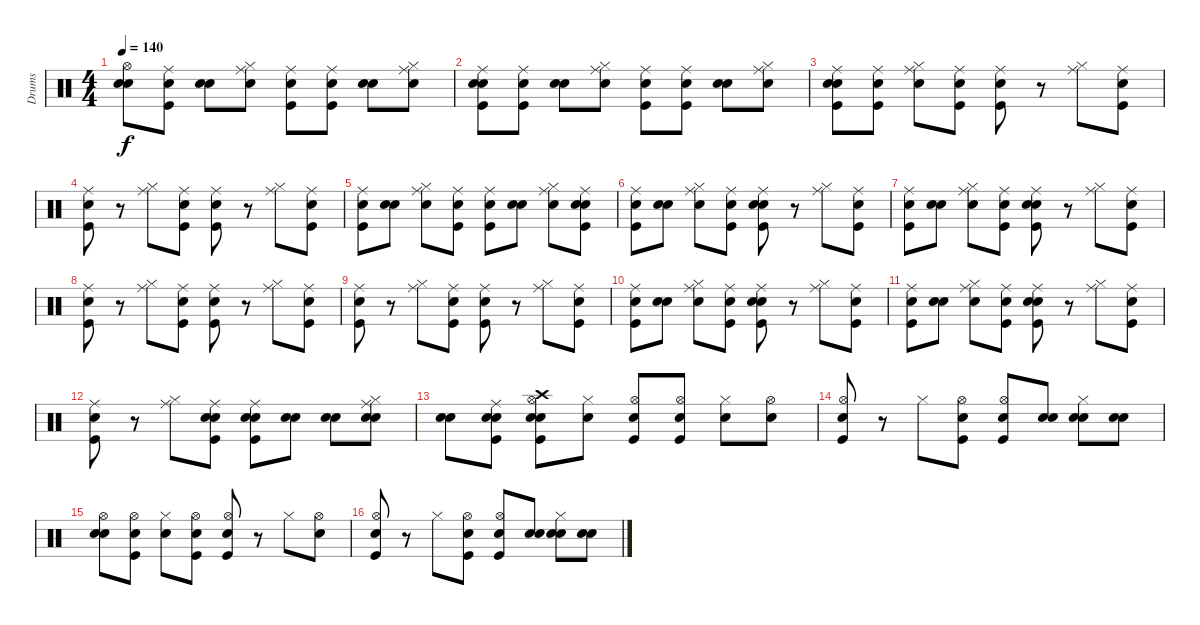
\track ("Drums" "Drums") {instrument percussion}
\staff {score}
\articulation defaults
\ts (4 4)
\tempo 140
\clef neutral
\ks c
("Snare (hit)" "Snare (hit) 2" "Hi-Hat (open)").8{dy f} ("Snare (hit)" "Kick (hit)" "Ride (middle)").8 ("Snare (hit)" "Snare (hit) 2").8 ("Snare (hit)" "Hi-Hat (closed)" "Ride (middle)").8 ("Snare (hit)" "Kick (hit)" "Ride (middle)").8 ("Snare (hit)" "Kick (hit)" "Ride (middle)").8 ("Snare (hit)" "Snare (hit) 2").8 ("Snare (hit)" "Hi-Hat (closed)" "Ride (middle)").8 |
("Snare (hit)" "Kick (hit)" "Snare (hit) 2" "Ride (middle)").8 ("Snare (hit)" "Kick (hit)" "Ride (middle)").8 ("Snare (hit)" "Snare (hit) 2").8 ("Snare (hit)" "Hi-Hat (closed)" "Ride (middle)").8 ("Snare (hit)" "Kick (hit)" "Ride (middle)").8 ("Snare (hit)" "Kick (hit)" "Ride (middle)").8 ("Snare (hit)" "Snare (hit) 2").8 ("Snare (hit)" "Hi-Hat (closed)" "Ride (middle)").8 |
("Snare (hit)" "Kick (hit)" "Snare (hit) 2" "Ride (middle)").8 ("Snare (hit)" "Kick (hit)" "Ride (middle)").8 ("Snare (hit)" "Hi-Hat (closed)" "Ride (middle)").8 ("Snare (hit)" "Kick (hit)" "Ride (middle)").8 ("Snare (hit)" "Kick (hit)" "Ride (middle)").8 r.8 ("Hi-Hat (closed)" "Ride (middle)").8 ("Snare (hit)" "Kick (hit)" "Ride (middle)").8 |
("Snare (hit)" "Kick (hit)" "Ride (middle)").8 r.8 ("Hi-Hat (closed)" "Ride (middle)").8 ("Snare (hit)" "Kick (hit)" "Ride (middle)").8 ("Snare (hit)" "Kick (hit)" "Ride (middle)").8 r.8 ("Hi-Hat (closed)" "Ride (middle)").8 ("Snare (hit)" "Kick (hit)" "Ride (middle)").8 |
("Snare (hit)" "Kick (hit)" "Ride (middle)").8 ("Snare (hit)" "Snare (hit) 2").8 ("Snare (hit)" "Hi-Hat (closed)" "Ride (middle)").8 ("Snare (hit)" "Kick (hit)" "Ride (middle)").8 ("Snare (hit)" "Kick (hit)" "Ride (middle)").8 ("Snare (hit)" "Snare (hit) 2").8 ("Snare (hit)" "Hi-Hat (closed)" "Ride (middle)").8 ("Snare (hit)" "Kick (hit)" "Snare (hit) 2" "Ride (middle)").8 |
("Snare (hit)" "Kick (hit)" "Ride (middle)").8 ("Snare (hit)" "Snare (hit) 2").8 ("Snare (hit)" "Hi-Hat (closed)" "Ride (middle)").8 ("Snare (hit)" "Kick (hit)" "Ride (middle)").8 ("Snare (hit)" "Kick (hit)" "Snare (hit) 2" "Ride (middle)").8 r.8 ("Hi-Hat (closed)" "Ride (middle)").8 ("Snare (hit)" "Kick (hit)" "Ride (middle)").8 |
("Snare (hit)" "Kick (hit)" "Ride (middle)").8 ("Snare (hit)" "Snare (hit) 2").8 ("Snare (hit)" "Hi-Hat (closed)" "Ride (middle)").8 ("Snare (hit)" "Kick (hit)" "Ride (middle)").8 ("Snare (hit)" "Kick (hit)" "Snare (hit) 2" "Ride (middle)").8 r.8 ("Hi-Hat (closed)" "Ride (middle)").8 ("Snare (hit)" "Kick (hit)" "Ride (middle)").8 |
("Snare (hit)" "Kick (hit)" "Ride (middle)").8 r.8 ("Hi-Hat (closed)" "Ride (middle)").8 ("Snare (hit)" "Kick (hit)" "Ride (middle)").8 ("Snare (hit)" "Kick (hit)" "Ride (middle)").8 r.8 ("Hi-Hat (closed)" "Ride (middle)").8 ("Snare (hit)" "Kick (hit)" "Ride (middle)").8 |
("Snare (hit)" "Kick (hit)" "Ride (middle)").8 r.8 ("Hi-Hat (closed)" "Ride (middle)").8 ("Snare (hit)" "Kick (hit)" "Ride (middle)").8 ("Snare (hit)" "Kick (hit)" "Ride (middle)").8 r.8 ("Hi-Hat (closed)" "Ride (middle)").8 ("Snare (hit)" "Kick (hit)" "Ride (middle)").8 |
("Snare (hit)" "Kick (hit)" "Ride (middle)").8 ("Snare (hit)" "Snare (hit) 2").8 ("Snare (hit)" "Hi-Hat (closed)" "Ride (middle)").8 ("Snare (hit)" "Kick (hit)" "Ride (middle)").8 ("Snare (hit)" "Kick (hit)" "Snare (hit) 2" "Ride (middle)").8 r.8 ("Hi-Hat (closed)" "Ride (middle)").8 ("Snare (hit)" "Kick (hit)" "Ride (middle)").8 |
("Snare (hit)" "Kick (hit)" "Ride (middle)").8 ("Snare (hit)" "Snare (hit) 2").8 ("Snare (hit)" "Hi-Hat (closed)" "Ride (middle)").8 ("Snare (hit)" "Kick (hit)" "Ride (middle)").8 ("Snare (hit)" "Kick (hit)" "Snare (hit) 2" "Ride (middle)").8 r.8 ("Hi-Hat (closed)" "Ride (middle)").8 ("Snare (hit)" "Kick (hit)" "Ride (middle)").8 |
("Snare (hit)" "Kick (hit)" "Ride (middle)").8 r.8 ("Hi-Hat (closed)" "Ride (middle)").8 ("Snare (hit)" "Kick (hit)" "Snare (hit) 2" "Ride (middle)").8 ("Snare (hit)" "Kick (hit)" "Snare (hit) 2" "Ride (middle)").8 ("Snare (hit)" "Snare (hit) 2").8 ("Snare (hit)" "Snare (hit) 2").8 ("Snare (hit)" "Snare (hit) 2" "Hi-Hat (closed)" "Ride (middle)").8 |
("Snare (hit)" "Snare (hit) 2").8 ("Snare (hit)" "Kick (hit)" "Snare (hit) 2" "Ride (middle)").8 ("Snare (hit)" "Kick (hit)" "Snare (hit) 2" "Hi-Hat (open)" "Crash high (hit)").8 ("Snare (hit)" "Hi-Hat (closed)").8 ("Snare (hit)" "Kick (hit)" "Hi-Hat (open)").8 ("Snare (hit)" "Kick (hit)" "Hi-Hat (open)").8 ("Snare (hit)" "Hi-Hat (closed)").8 ("Snare (hit)" "Hi-Hat (open)").8 |
("Snare (hit)" "Kick (hit)" "Hi-Hat (open)").8 r.8 "Hi-Hat (closed)".8 ("Snare (hit)" "Kick (hit)" "Hi-Hat (open)").8 ("Snare (hit)" "Kick (hit)" "Hi-Hat (open)").8 ("Snare (hit)" "Snare (hit) 2").8 ("Snare (hit)" "Snare (hit) 2" "Hi-Hat (closed)").8 ("Snare (hit)" "Snare (hit) 2").8 |
("Snare (hit)" "Snare (hit) 2" "Hi-Hat (open)").8 ("Snare (hit)" "Kick (hit)" "Hi-Hat (open)").8 ("Snare (hit)" "Hi-Hat (closed)").8 ("Snare (hit)" "Kick (hit)" "Hi-Hat (open)").8 ("Snare (hit)" "Kick (hit)" "Hi-Hat (open)").8 r.8 "Hi-Hat (closed)".8 ("Snare (hit)" "Hi-Hat (open)").8 |
("Snare (hit)" "Kick (hit)" "Hi-Hat (open)").8 r.8 "Hi-Hat (closed)".8 ("Snare (hit)" "Kick (hit)" "Hi-Hat (open)").8 ("Snare (hit)" "Kick (hit)" "Hi-Hat (open)").8 ("Snare (hit)" "Snare (hit) 2").8 ("Snare (hit)" "Snare (hit) 2" "Hi-Hat (closed)").8 ("Snare (hit)" "Snare (hit) 2").8
